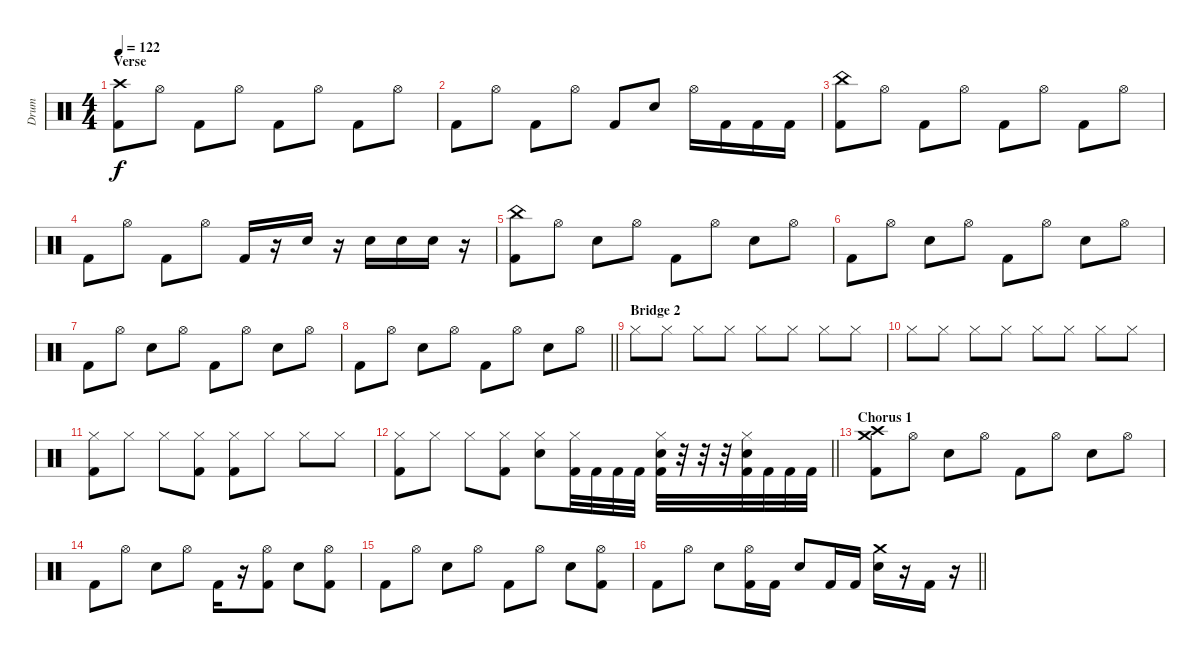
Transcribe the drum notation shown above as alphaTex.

\track ("Drum" "Drum") {instrument percussion}
\staff {score}
\articulation defaults
\ts (4 4)
\section ("" "Verse")
\tempo 122
\clef neutral
\ks c
("Kick (hit) 2" "Crash high (hit)").8{dy f} "Hi-Hat (open)".8 "Kick (hit) 2".8 "Hi-Hat (open)".8 "Kick (hit) 2".8 "Hi-Hat (open)".8 "Kick (hit) 2".8 "Hi-Hat (open)".8 |
"Kick (hit) 2".8 "Hi-Hat (open)".8 "Kick (hit) 2".8 "Hi-Hat (open)".8 "Kick (hit) 2".8 "Snare (hit) 2".8 "Hi-Hat (open)".16 "Kick (hit) 2".16 "Kick (hit) 2".16 "Kick (hit) 2".16 |
("Kick (hit) 2" "China (hit)").8 "Hi-Hat (open)".8 "Kick (hit) 2".8 "Hi-Hat (open)".8 "Kick (hit) 2".8 "Hi-Hat (open)".8 "Kick (hit) 2".8 "Hi-Hat (open)".8 |
"Kick (hit) 2".8 "Hi-Hat (open)".8 "Kick (hit) 2".8 "Hi-Hat (open)".8 "Kick (hit) 2".16 r.16 "Snare (hit) 2".16 r.16 "Snare (hit) 2".16 "Snare (hit) 2".16 "Snare (hit) 2".16 r.16 |
("Kick (hit) 2" "China (hit)").8 "Hi-Hat (open)".8 "Snare (hit) 2".8 "Hi-Hat (open)".8 "Kick (hit) 2".8 "Hi-Hat (open)".8 "Snare (hit) 2".8 "Hi-Hat (open)".8 |
"Kick (hit) 2".8 "Hi-Hat (open)".8 "Snare (hit) 2".8 "Hi-Hat (open)".8 "Kick (hit) 2".8 "Hi-Hat (open)".8 "Snare (hit) 2".8 "Hi-Hat (open)".8 |
"Kick (hit) 2".8 "Hi-Hat (open)".8 "Snare (hit) 2".8 "Hi-Hat (open)".8 "Kick (hit) 2".8 "Hi-Hat (open)".8 "Snare (hit) 2".8 "Hi-Hat (open)".8 |
\barLineRight lightlight "Kick (hit) 2".8 "Hi-Hat (open)".8 "Snare (hit) 2".8 "Hi-Hat (open)".8 "Kick (hit) 2".8 "Hi-Hat (open)".8 "Snare (hit) 2".8 "Hi-Hat (open)".8
|
\section ("" "Bridge 2")
"Hi-Hat (closed)".8 "Hi-Hat (closed)".8 "Hi-Hat (closed)".8 "Hi-Hat (closed)".8 "Hi-Hat (closed)".8 "Hi-Hat (closed)".8 "Hi-Hat (closed)".8 "Hi-Hat (closed)".8 |
"Hi-Hat (closed)".8 "Hi-Hat (closed)".8 "Hi-Hat (closed)".8 "Hi-Hat (closed)".8 "Hi-Hat (closed)".8 "Hi-Hat (closed)".8 "Hi-Hat (closed)".8 "Hi-Hat (closed)".8 |
("Hi-Hat (closed)" "Kick (hit) 2").8 "Hi-Hat (closed)".8 "Hi-Hat (closed)".8 ("Hi-Hat (closed)" "Kick (hit) 2").8 ("Hi-Hat (closed)" "Kick (hit) 2").8 "Hi-Hat (closed)".8 "Hi-Hat (closed)".8 "Hi-Hat (closed)".8 |
\barLineRight lightlight
("Hi-Hat (closed)" "Kick (hit) 2").8 "Hi-Hat (closed)".8 "Hi-Hat (closed)".8 ("Hi-Hat (closed)" "Kick (hit) 2").8 ("Hi-Hat (closed)" "Snare (hit) 2").8 ("Hi-Hat (closed)" "Kick (hit) 2").32 "Kick (hit) 2".32 "Kick (hit) 2".32 "Kick (hit) 2".32 ("Hi-Hat (closed)" "Snare (hit) 2" "Kick (hit) 2").32 r.32 r.32 r.32 ("Hi-Hat (closed)" "Snare (hit) 2" "Kick (hit) 2").32 "Kick (hit) 2".32 "Kick (hit) 2".32 "Kick (hit) 2".32 |
\section ("" "Chorus 1")
("Crash high (hit)" "Crash medium (hit)" "Kick (hit) 2").8 "Hi-Hat (open)".8 "Snare (hit) 2".8 "Hi-Hat (open)".8 "Kick (hit) 2".8 "Hi-Hat (open)".8 "Snare (hit) 2".8 "Hi-Hat (open)".8 |
"Kick (hit) 2".8 "Hi-Hat (open)".8 "Snare (hit) 2".8 "Hi-Hat (open)".8 "Kick (hit) 2".16 r.16 ("Hi-Hat (open)" "Kick (hit) 2").8 "Snare (hit) 2".8 ("Hi-Hat (open)" "Kick (hit) 2").8 |
"Kick (hit) 2".8 "Hi-Hat (open)".8 "Snare (hit) 2".8 "Hi-Hat (open)".8 "Kick (hit) 2".8 "Hi-Hat (open)".8 "Snare (hit) 2".8 ("Hi-Hat (open)" "Kick (hit) 2").8 |
\barLineRight lightlight "Kick (hit) 2".8 "Hi-Hat (open)".8 "Snare (hit) 2".8
("Hi-Hat (open)" "Kick (hit) 2").16 "Kick (hit) 2".16 "Snare (hit) 2".8 "Kick (hit) 2".16 "Kick (hit) 2".16 ("Crash medium (hit)" "Snare (hit) 2").16 r.16 "Kick (hit) 2".16 r.16
